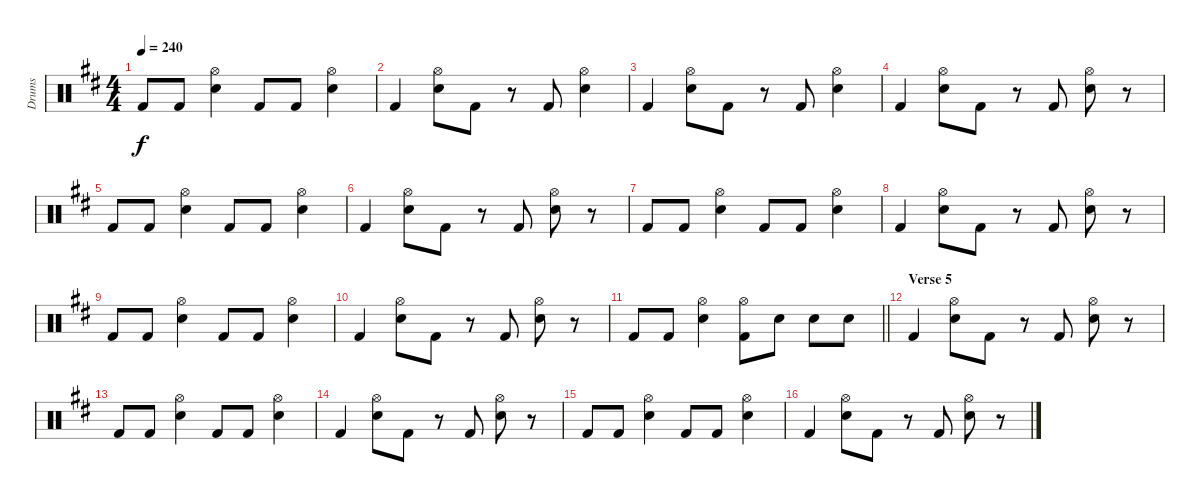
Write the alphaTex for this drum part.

\track ("Drums" "Drums") {instrument percussion}
\staff {score}
\articulation defaults
\ts (4 4)
\tempo 240
\clef neutral
\ks d "Kick (hit) 2".8{dy f} "Kick (hit) 2".8
("Hi-Hat (open)" "Electric Snare (hit)").4 "Kick (hit) 2".8 "Kick (hit) 2".8 ("Hi-Hat (open)" "Electric Snare (hit)").4 |
"Kick (hit) 2".4 ("Hi-Hat (open)" "Electric Snare (hit)").8 "Kick (hit) 2".8 r.8 "Kick (hit) 2".8 ("Hi-Hat (open)" "Electric Snare (hit)").4 |
"Kick (hit) 2".4 ("Hi-Hat (open)" "Electric Snare (hit)").8 "Kick (hit) 2".8 r.8 "Kick (hit) 2".8 ("Hi-Hat (open)" "Electric Snare (hit)").4 |
"Kick (hit) 2".4 ("Hi-Hat (open)" "Electric Snare (hit)").8 "Kick (hit) 2".8 r.8 "Kick (hit) 2".8 ("Hi-Hat (open)" "Electric Snare (hit)").8 r.8 |
"Kick (hit) 2".8 "Kick (hit) 2".8 ("Hi-Hat (open)" "Electric Snare (hit)").4 "Kick (hit) 2".8 "Kick (hit) 2".8 ("Hi-Hat (open)" "Electric Snare (hit)").4 |
"Kick (hit) 2".4 ("Hi-Hat (open)" "Electric Snare (hit)").8 "Kick (hit) 2".8 r.8 "Kick (hit) 2".8 ("Hi-Hat (open)" "Electric Snare (hit)").8 r.8 |
"Kick (hit) 2".8 "Kick (hit) 2".8 ("Hi-Hat (open)" "Electric Snare (hit)").4 "Kick (hit) 2".8 "Kick (hit) 2".8 ("Hi-Hat (open)" "Electric Snare (hit)").4 |
"Kick (hit) 2".4 ("Hi-Hat (open)" "Electric Snare (hit)").8 "Kick (hit) 2".8 r.8 "Kick (hit) 2".8 ("Hi-Hat (open)" "Electric Snare (hit)").8 r.8 |
"Kick (hit) 2".8 "Kick (hit) 2".8 ("Hi-Hat (open)" "Electric Snare (hit)").4 "Kick (hit) 2".8 "Kick (hit) 2".8 ("Hi-Hat (open)" "Electric Snare (hit)").4 |
"Kick (hit) 2".4 ("Hi-Hat (open)" "Electric Snare (hit)").8 "Kick (hit) 2".8 r.8 "Kick (hit) 2".8 ("Hi-Hat (open)" "Electric Snare (hit)").8 r.8 |
\barLineRight lightlight "Kick (hit) 2".8 "Kick (hit) 2".8
("Hi-Hat (open)" "Electric Snare (hit)").4 ("Hi-Hat (open)" "Kick (hit) 2").8 "Electric Snare (hit)".8 "Electric Snare (hit)".8 "Electric Snare (hit)".8 |
\section ("" "Verse 5")
"Kick (hit) 2".4 ("Hi-Hat (open)" "Electric Snare (hit)").8 "Kick (hit) 2".8 r.8 "Kick (hit) 2".8 ("Hi-Hat (open)" "Electric Snare (hit)").8 r.8 |
"Kick (hit) 2".8 "Kick (hit) 2".8 ("Hi-Hat (open)" "Electric Snare (hit)").4 "Kick (hit) 2".8 "Kick (hit) 2".8 ("Hi-Hat (open)" "Electric Snare (hit)").4 |
"Kick (hit) 2".4 ("Hi-Hat (open)" "Electric Snare (hit)").8 "Kick (hit) 2".8 r.8 "Kick (hit) 2".8 ("Hi-Hat (open)" "Electric Snare (hit)").8 r.8 |
"Kick (hit) 2".8 "Kick (hit) 2".8 ("Hi-Hat (open)" "Electric Snare (hit)").4 "Kick (hit) 2".8 "Kick (hit) 2".8 ("Hi-Hat (open)" "Electric Snare (hit)").4 |
"Kick (hit) 2".4 ("Hi-Hat (open)" "Electric Snare (hit)").8 "Kick (hit) 2".8 r.8 "Kick (hit) 2".8 ("Hi-Hat (open)" "Electric Snare (hit)").8 r.8
